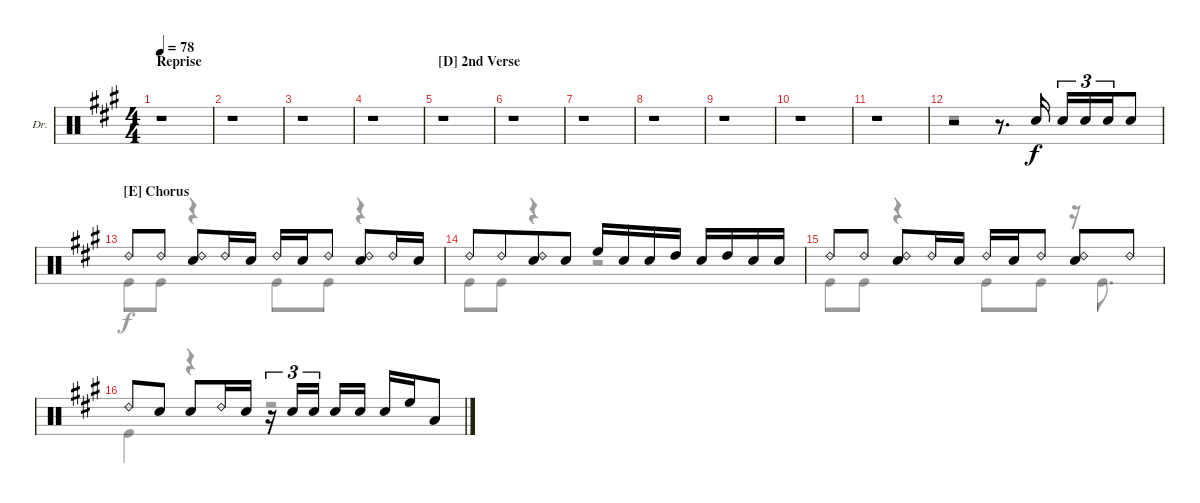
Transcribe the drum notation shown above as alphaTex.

\defaultSystemsLayout 4
\bracketExtendMode groupsimilarinstruments
\firstSystemTrackNameOrientation horizontal
\otherSystemsTrackNameOrientation horizontal
\track ("Drums" "Dr.") {instrument percussion}
\staff {score}
\articulation defaults
\voice
\ts (4 4)
\section ("" "Reprise")
\tempo 78
\clef neutral
\ks a
r.1{dy f} |
r.1 |
r.1 |
r.1 |
\section ("D" "2nd Verse")
r.1 |
r.1 |
r.1 |
r.1 |
r.1 |
r.1 |
r.1 |
r.2 r.8{d} "Snare (hit) 2".16 "Snare (hit) 2".16{tu (3 2)} "Snare (hit) 2".16{tu (3 2)} "Snare (hit) 2".16{tu (3 2) beam merge} "Snare (hit) 2".8 |
\section ("E" "Chorus")
"Ride (bell) 2".8 "Ride (bell) 2".8 ("Ride (bell) 2" "Snare (hit) 2").8 "Ride (bell) 2".16 "Snare (hit) 2".16 "Ride (bell) 2".16 "Snare (hit) 2".16 "Ride (bell) 2".8 ("Ride (bell) 2" "Snare (hit) 2").8 "Ride (bell) 2".16 "Snare (hit) 2".16 |
"Ride (bell) 2".8 "Ride (bell) 2".8{beam merge} ("Ride (bell) 2" "Snare (hit) 2").8 "Snare (hit) 2".8 "High Floor Tom (hit)".16 "Snare (hit) 2".16 "Snare (hit) 2".16 "High Tom (hit)".16 "Snare (hit) 2".16 "High Tom (hit)".16 "Snare (hit) 2".16 "Snare (hit) 2".16 |
"Ride (bell) 2".8 "Ride (bell) 2".8 ("Ride (bell) 2" "Snare (hit) 2").8 "Ride (bell) 2".16 "Snare (hit) 2".16 "Ride (bell) 2".16 "Snare (hit) 2".16 "Ride (bell) 2".8 ("Ride (bell) 2" "Snare (hit) 2").8 "Ride (bell) 2".8 |
"Ride (bell) 2".8 "Snare (hit) 2".8 "Snare (hit) 2".8 "Ride (bell) 2".16 "Snare (hit) 2".16 r.16{tu (3 2)} "Snare (hit) 2".16{tu (3 2)} "Snare (hit) 2".16{tu (3 2) beam splitsecondary} "Snare (hit) 2".16 "Snare (hit) 2".16 "Snare (hit) 2".16 "High Floor Tom (hit)".16 "Low Tom (hit)".8
\voice
\clef neutral
\ottava regular
\simile none
\ks a
|
|
|
|
|
|
|
|
|
|
|
r.1 |
"Kick (hit)".8 "Kick (hit)".8 r.4 "Kick (hit)".8 "Kick (hit)".8 r.4 |
"Kick (hit)".8 "Kick (hit)".8 r.4 r.2 |
"Kick (hit)".8 "Kick (hit)".8 r.4 "Kick (hit)".8 "Kick (hit)".8 r.16 "Kick (hit)".8{d} |
"Kick (hit)".4 r.4 r.2
